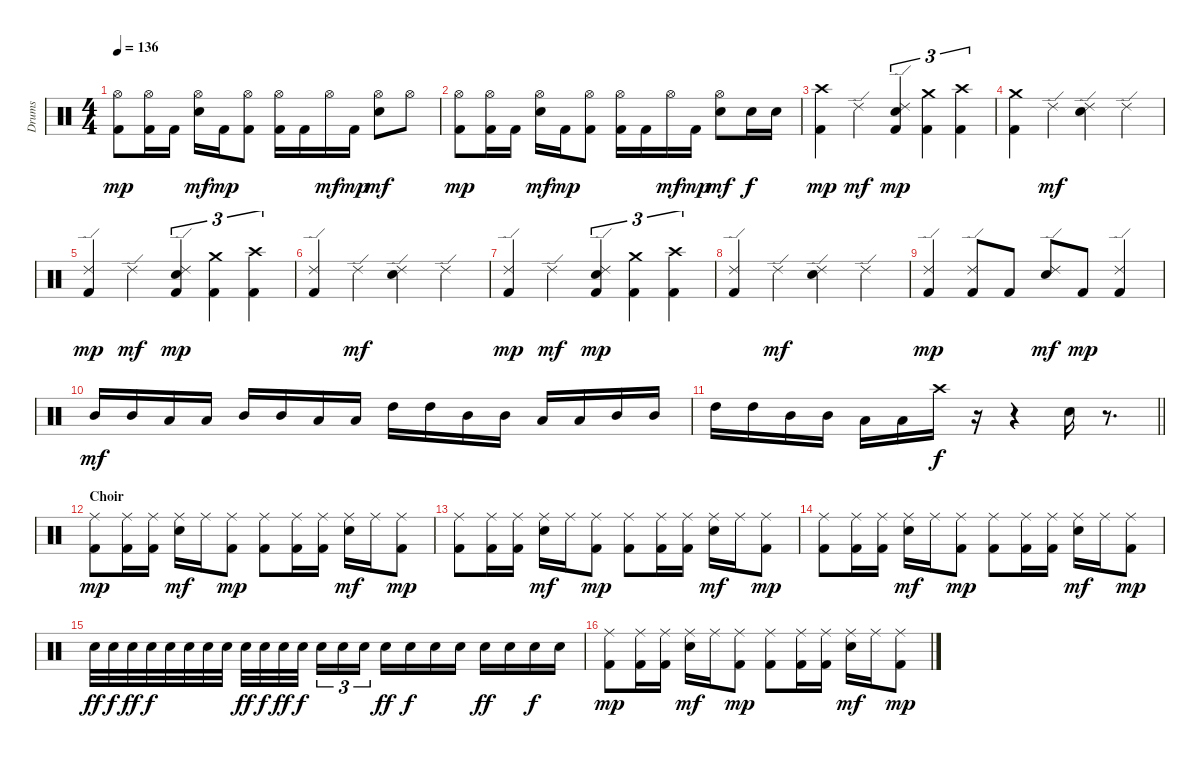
\track ("Drums" "Drums") {instrument percussion}
\staff {score}
\articulation defaults
\ts (4 4)
\tempo 136
\clef neutral
\ks c
("Hi-Hat (open)" "Kick (hit) 2").8{dy mp} ("Hi-Hat (open)" "Kick (hit) 2").16 "Kick (hit) 2".16 ("Hi-Hat (open)" "Electric Snare (hit)").16{dy mf} "Kick (hit) 2".16{dy mp} ("Hi-Hat (open)" "Kick (hit) 2").8 ("Hi-Hat (open)" "Kick (hit) 2").16 "Kick (hit) 2".16 "Hi-Hat (open)".16{dy mf} "Kick (hit) 2".16{dy mp} ("Hi-Hat (open)" "Electric Snare (hit)").8{dy mf} "Hi-Hat (open)".8 |
("Hi-Hat (open)" "Kick (hit) 2").8{dy mp} ("Hi-Hat (open)" "Kick (hit) 2").16 "Kick (hit) 2".16 ("Hi-Hat (open)" "Electric Snare (hit)").16{dy mf} "Kick (hit) 2".16{dy mp} ("Hi-Hat (open)" "Kick (hit) 2").8 ("Hi-Hat (open)" "Kick (hit) 2").16 "Kick (hit) 2".16 "Hi-Hat (open)".16{dy mf} "Kick (hit) 2".16{dy mp} ("Hi-Hat (open)" "Electric Snare (hit)").8{dy mf} "Electric Snare (hit)".16{dy f} "Electric Snare (hit)".16 |
("Crash high (hit)" "Kick (hit) 2").4{dy mp} "Ride (edge) 2".4{dy mf} ("Ride (edge) 2" "Electric Snare (hit)" "Kick (hit) 2").4{tu (3 2) dy mp} ("Crash medium (hit)" "Kick (hit) 2").4{tu (3 2)} ("Crash high (hit)" "Kick (hit) 2").4{tu (3 2)} |
("Crash medium (hit)" "Kick (hit) 2").4 "Ride (edge) 2".4{dy mf} ("Ride (edge) 2" "Electric Snare (hit)").4 "Ride (edge) 2".4 |
("Ride (edge) 2" "Kick (hit) 2").4{dy mp} "Ride (edge) 2".4{dy mf} ("Ride (edge) 2" "Electric Snare (hit)" "Kick (hit) 2").4{tu (3 2) dy mp} ("Crash medium (hit)" "Kick (hit) 2").4{tu (3 2)} ("Crash high (hit)" "Kick (hit) 2").4{tu (3 2)} |
("Ride (edge) 2" "Kick (hit) 2").4 "Ride (edge) 2".4{dy mf} ("Ride (edge) 2" "Electric Snare (hit)").4 "Ride (edge) 2".4 |
("Ride (edge) 2" "Kick (hit) 2").4{dy mp} "Ride (edge) 2".4{dy mf} ("Ride (edge) 2" "Electric Snare (hit)" "Kick (hit) 2").4{tu (3 2) dy mp} ("Crash medium (hit)" "Kick (hit) 2").4{tu (3 2)} ("Crash high (hit)" "Kick (hit) 2").4{tu (3 2)} |
("Ride (edge) 2" "Kick (hit) 2").4 "Ride (edge) 2".4{dy mf} ("Ride (edge) 2" "Electric Snare (hit)").4 "Ride (edge) 2".4 |
("Ride (edge) 2" "Kick (hit) 2").4{dy mp} ("Ride (edge) 2" "Kick (hit) 2").8 "Kick (hit) 2".8 ("Ride (edge) 2" "Electric Snare (hit)").8{dy mf} "Kick (hit) 2".8{dy mp} ("Ride (edge) 2" "Kick (hit) 2").4 |
"Mid Tom (hit)".16{dy mf} "Mid Tom (hit)".16 "Low Tom (hit)".16 "Low Tom (hit)".16 "Mid Tom (hit)".16 "Mid Tom (hit)".16 "Low Tom (hit)".16 "Low Tom (hit)".16 "High Tom (hit)".16 "High Tom (hit)".16 "Mid Tom (hit)".16 "Mid Tom (hit)".16 "Low Tom (hit)".16 "Low Tom (hit)".16 "Mid Tom (hit)".16 "Mid Tom (hit)".16 |
\barLineRight lightlight "High Tom (hit)".16 "High Tom (hit)".16 "Mid Tom (hit)".16 "Mid Tom (hit)".16 "Low Tom (hit)".16 "Low Tom (hit)".16 "Crash high (hit)".16{dy f}
r.16 r.4 "Electric Snare (hit)".16 r.8{d} |
\section ("" "Choir")
("Ride (middle)" "Kick (hit) 2").8{dy mp} ("Ride (middle)" "Kick (hit) 2").16 ("Ride (middle)" "Kick (hit) 2").16 ("Ride (middle)" "Electric Snare (hit)").16{dy mf} "Ride (middle)".16 ("Ride (middle)" "Kick (hit) 2").8{dy mp} ("Ride (middle)" "Kick (hit) 2").8 ("Ride (middle)" "Kick (hit) 2").16 ("Ride (middle)" "Kick (hit) 2").16 ("Ride (middle)" "Electric Snare (hit)").16{dy mf} "Ride (middle)".16 ("Ride (middle)" "Kick (hit) 2").8{dy mp} |
("Ride (middle)" "Kick (hit) 2").8 ("Ride (middle)" "Kick (hit) 2").16 ("Ride (middle)" "Kick (hit) 2").16 ("Ride (middle)" "Electric Snare (hit)").16{dy mf} "Ride (middle)".16 ("Ride (middle)" "Kick (hit) 2").8{dy mp} ("Ride (middle)" "Kick (hit) 2").8 ("Ride (middle)" "Kick (hit) 2").16 ("Ride (middle)" "Kick (hit) 2").16 ("Ride (middle)" "Electric Snare (hit)").16{dy mf} "Ride (middle)".16 ("Ride (middle)" "Kick (hit) 2").8{dy mp} |
("Ride (middle)" "Kick (hit) 2").8 ("Ride (middle)" "Kick (hit) 2").16 ("Ride (middle)" "Kick (hit) 2").16 ("Ride (middle)" "Electric Snare (hit)").16{dy mf} "Ride (middle)".16 ("Ride (middle)" "Kick (hit) 2").8{dy mp} ("Ride (middle)" "Kick (hit) 2").8 ("Ride (middle)" "Kick (hit) 2").16 ("Ride (middle)" "Kick (hit) 2").16 ("Ride (middle)" "Electric Snare (hit)").16{dy mf} "Ride (middle)".16 ("Ride (middle)" "Kick (hit) 2").8{dy mp} |
"Electric Snare (hit)".32{dy ff} "Electric Snare (hit)".32{dy f} "Electric Snare (hit)".32{dy ff} "Electric Snare (hit)".32{dy f} "Electric Snare (hit)".32 "Electric Snare (hit)".32 "Electric Snare (hit)".32 "Electric Snare (hit)".32 "Electric Snare (hit)".32{dy ff} "Electric Snare (hit)".32{dy f} "Electric Snare (hit)".32{dy ff} "Electric Snare (hit)".32{dy f beam splitsecondary} "Electric Snare (hit)".16{tu (3 2)} "Electric Snare (hit)".16{tu (3 2)} "Electric Snare (hit)".16{tu (3 2)} "Electric Snare (hit)".16{dy ff} "Electric Snare (hit)".16{dy f} "Electric Snare (hit)".16 "Electric Snare (hit)".16 "Electric Snare (hit)".16{dy ff} "Electric Snare (hit)".16 "Electric Snare (hit)".16{dy f} "Electric Snare (hit)".16 |
("Ride (middle)" "Kick (hit) 2").8{dy mp} ("Ride (middle)" "Kick (hit) 2").16 ("Ride (middle)" "Kick (hit) 2").16 ("Ride (middle)" "Electric Snare (hit)").16{dy mf} "Ride (middle)".16 ("Ride (middle)" "Kick (hit) 2").8{dy mp} ("Ride (middle)" "Kick (hit) 2").8 ("Ride (middle)" "Kick (hit) 2").16 ("Ride (middle)" "Kick (hit) 2").16 ("Ride (middle)" "Electric Snare (hit)").16{dy mf} "Ride (middle)".16 ("Ride (middle)" "Kick (hit) 2").8{dy mp}
